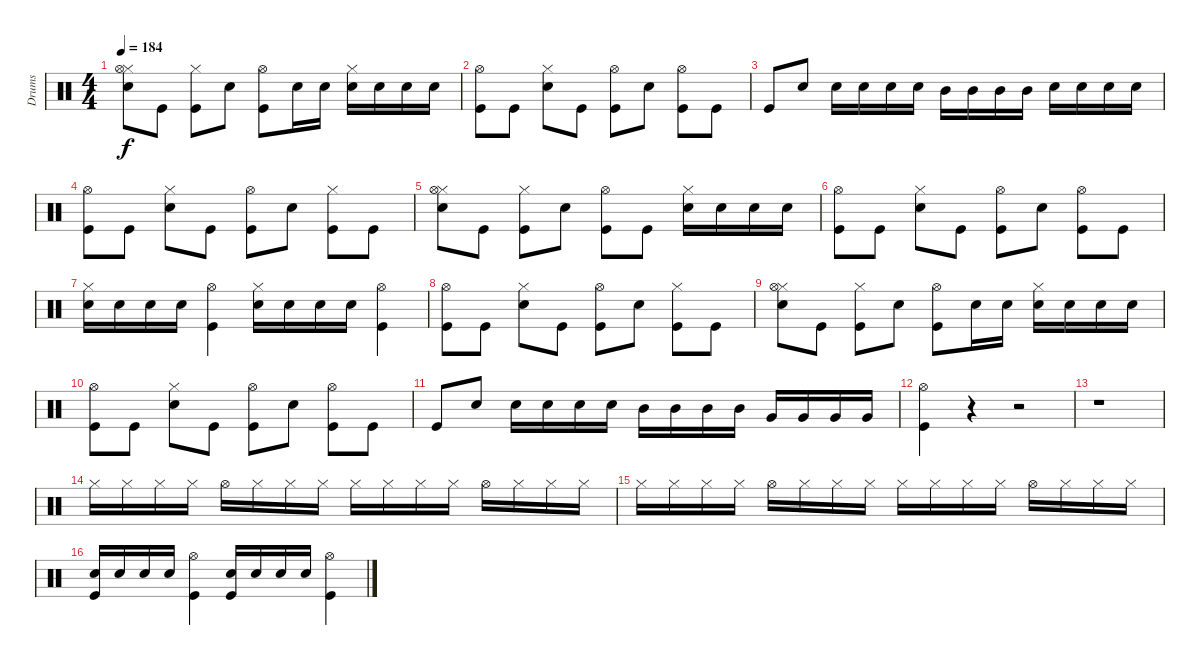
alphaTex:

\track (" Drums" " Drums") {instrument percussion}
\staff {score}
\articulation defaults
\ts (4 4)
\tempo 184
\clef neutral
\ks c
("Snare (hit) 2" "Hi-Hat (closed)" "Hi-Hat (open)").8{dy f} "Kick (hit)".8 ("Kick (hit)" "Hi-Hat (closed)").8 "Snare (hit) 2".8 ("Kick (hit)" "Hi-Hat (open)").8 "Snare (hit) 2".16 "Snare (hit) 2".16 ("Snare (hit) 2" "Hi-Hat (closed)").16 "Snare (hit) 2".16 "Snare (hit) 2".16 "Snare (hit) 2".16 |
("Hi-Hat (open)" "Kick (hit)").8 "Kick (hit)".8 ("Hi-Hat (closed)" "Snare (hit) 2").8 "Kick (hit)".8 ("Kick (hit)" "Hi-Hat (open)").8 "Snare (hit) 2".8 ("Kick (hit)" "Hi-Hat (open)").8 "Kick (hit)".8 |
"Kick (hit)".8 "Snare (hit) 2".8 "Snare (hit) 2".16 "Snare (hit) 2".16 "Snare (hit) 2".16 "Snare (hit) 2".16 "Mid Tom (hit)".16 "Mid Tom (hit)".16 "Mid Tom (hit)".16 "Mid Tom (hit)".16 "Snare (hit) 2".16 "Snare (hit) 2".16 "Snare (hit) 2".16 "Snare (hit) 2".16 |
("Hi-Hat (open)" "Kick (hit)").8 "Kick (hit)".8 ("Snare (hit) 2" "Hi-Hat (closed)").8 "Kick (hit)".8 ("Kick (hit)" "Hi-Hat (open)").8 "Snare (hit) 2".8 ("Kick (hit)" "Hi-Hat (closed)").8 "Kick (hit)".8 |
("Snare (hit) 2" "Hi-Hat (closed)" "Hi-Hat (open)").8 "Kick (hit)".8 ("Kick (hit)" "Hi-Hat (closed)").8 "Snare (hit) 2".8 ("Kick (hit)" "Hi-Hat (open)").8 "Kick (hit)".8 ("Snare (hit) 2" "Hi-Hat (closed)").16 "Snare (hit) 2".16 "Snare (hit) 2".16 "Snare (hit) 2".16 |
("Hi-Hat (open)" "Kick (hit)").8 "Kick (hit)".8 ("Hi-Hat (closed)" "Snare (hit) 2").8 "Kick (hit)".8 ("Kick (hit)" "Hi-Hat (open)").8 "Snare (hit) 2".8 ("Kick (hit)" "Hi-Hat (open)").8 "Kick (hit)".8 |
("Hi-Hat (closed)" "Snare (hit) 2").16 "Snare (hit) 2".16 "Snare (hit) 2".16 "Snare (hit) 2".16 ("Hi-Hat (open)" "Kick (hit)").4 ("Hi-Hat (closed)" "Snare (hit) 2").16 "Snare (hit) 2".16 "Snare (hit) 2".16 "Snare (hit) 2".16 ("Hi-Hat (open)" "Kick (hit)").4 |
("Hi-Hat (open)" "Kick (hit)").8 "Kick (hit)".8 ("Snare (hit) 2" "Hi-Hat (closed)").8 "Kick (hit)".8 ("Kick (hit)" "Hi-Hat (open)").8 "Snare (hit) 2".8 ("Kick (hit)" "Hi-Hat (closed)").8 "Kick (hit)".8 |
("Snare (hit) 2" "Hi-Hat (closed)" "Hi-Hat (open)").8 "Kick (hit)".8 ("Kick (hit)" "Hi-Hat (closed)").8 "Snare (hit) 2".8 ("Kick (hit)" "Hi-Hat (open)").8 "Snare (hit) 2".16 "Snare (hit) 2".16 ("Snare (hit) 2" "Hi-Hat (closed)").16 "Snare (hit) 2".16 "Snare (hit) 2".16 "Snare (hit) 2".16 |
("Hi-Hat (open)" "Kick (hit)").8 "Kick (hit)".8 ("Hi-Hat (closed)" "Snare (hit) 2").8 "Kick (hit)".8 ("Kick (hit)" "Hi-Hat (open)").8 "Snare (hit) 2".8 ("Kick (hit)" "Hi-Hat (open)").8 "Kick (hit)".8 |
"Kick (hit)".8 "Snare (hit) 2".8 "Snare (hit) 2".16 "Snare (hit) 2".16 "Snare (hit) 2".16 "Snare (hit) 2".16 "Mid Tom (hit)".16 "Mid Tom (hit)".16 "Mid Tom (hit)".16 "Mid Tom (hit)".16 "Very Low Tom (hit)".16 "Very Low Tom (hit)".16 "Very Low Tom (hit)".16 "Very Low Tom (hit)".16 |
("Hi-Hat (open)" "Kick (hit)").4 r.4 r.2 |
r.1 |
"Hi-Hat (closed)".16 "Hi-Hat (closed)".16 "Hi-Hat (closed)".16 "Hi-Hat (closed)".16 "Hi-Hat (open)".16 "Hi-Hat (closed)".16 "Hi-Hat (closed)".16 "Hi-Hat (closed)".16 "Hi-Hat (closed)".16 "Hi-Hat (closed)".16 "Hi-Hat (closed)".16 "Hi-Hat (closed)".16 "Hi-Hat (open)".16 "Hi-Hat (closed)".16 "Hi-Hat (closed)".16 "Hi-Hat (closed)".16 |
"Hi-Hat (closed)".16 "Hi-Hat (closed)".16 "Hi-Hat (closed)".16 "Hi-Hat (closed)".16 "Hi-Hat (open)".16 "Hi-Hat (closed)".16 "Hi-Hat (closed)".16 "Hi-Hat (closed)".16 "Hi-Hat (closed)".16 "Hi-Hat (closed)".16 "Hi-Hat (closed)".16 "Hi-Hat (closed)".16 "Hi-Hat (open)".16 "Hi-Hat (closed)".16 "Hi-Hat (closed)".16 "Hi-Hat (closed)".16 |
("Snare (hit) 2" "Kick (hit)").16 "Snare (hit) 2".16 "Snare (hit) 2".16 "Snare (hit) 2".16 ("Hi-Hat (open)" "Kick (hit)").4 ("Snare (hit) 2" "Kick (hit)").16 "Snare (hit) 2".16 "Snare (hit) 2".16 "Snare (hit) 2".16 ("Hi-Hat (open)" "Kick (hit)").4
